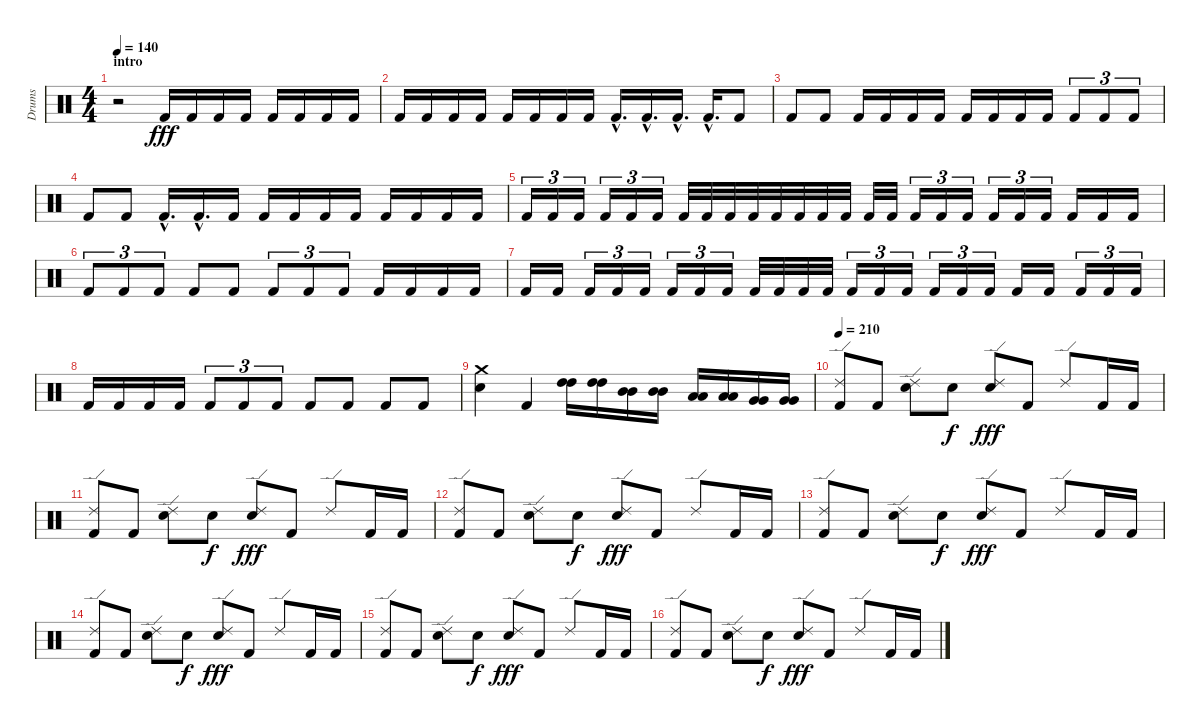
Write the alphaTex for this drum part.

\track ("Drums" "Drums") {instrument percussion}
\staff {score}
\articulation defaults
\ts (4 4)
\section ("" "intro")
\tempo 140
\clef neutral
\ks c
r.2{dy fff} "Kick (hit) 2".16 "Kick (hit) 2".16 "Kick (hit) 2".16 "Kick (hit) 2".16 "Kick (hit) 2".16 "Kick (hit) 2".16 "Kick (hit) 2".16 "Kick (hit) 2".16 |
"Kick (hit) 2".16 "Kick (hit) 2".16 "Kick (hit) 2".16 "Kick (hit) 2".16 "Kick (hit) 2".16 "Kick (hit) 2".16 "Kick (hit) 2".16 "Kick (hit) 2".16 "Kick (hit) 2"{hac}.16{d} "Kick (hit) 2"{hac}.16{d} "Kick (hit) 2"{hac}.16{d} "Kick (hit) 2"{hac}.16{d} "Kick (hit) 2".8 |
"Kick (hit) 2".8 "Kick (hit) 2".8 "Kick (hit) 2".16 "Kick (hit) 2".16 "Kick (hit) 2".16 "Kick (hit) 2".16 "Kick (hit) 2".16 "Kick (hit) 2".16 "Kick (hit) 2".16 "Kick (hit) 2".16 "Kick (hit) 2".8{tu (3 2)} "Kick (hit) 2".8{tu (3 2)} "Kick (hit) 2".8{tu (3 2)} |
"Kick (hit) 2".8 "Kick (hit) 2".8 "Kick (hit) 2"{hac}.16{d} "Kick (hit) 2"{hac}.16{d} "Kick (hit) 2".16 "Kick (hit) 2".16 "Kick (hit) 2".16 "Kick (hit) 2".16 "Kick (hit) 2".16 "Kick (hit) 2".16 "Kick (hit) 2".16 "Kick (hit) 2".16 "Kick (hit) 2".16 |
"Kick (hit) 2".16{tu (3 2)} "Kick (hit) 2".16{tu (3 2)} "Kick (hit) 2".16{tu (3 2)} "Kick (hit) 2".16{tu (3 2)} "Kick (hit) 2".16{tu (3 2)} "Kick (hit) 2".16{tu (3 2)} "Kick (hit) 2".32 "Kick (hit) 2".32 "Kick (hit) 2".32 "Kick (hit) 2".32 "Kick (hit) 2".32 "Kick (hit) 2".32 "Kick (hit) 2".32 "Kick (hit) 2".32 "Kick (hit) 2".32 "Kick (hit) 2".32 "Kick (hit) 2".16{tu (3 2)} "Kick (hit) 2".16{tu (3 2)} "Kick (hit) 2".16{tu (3 2)} "Kick (hit) 2".16{tu (3 2)} "Kick (hit) 2".16{tu (3 2)} "Kick (hit) 2".16{tu (3 2)} "Kick (hit) 2".16 "Kick (hit) 2".16 "Kick (hit) 2".16 |
"Kick (hit) 2".8{tu (3 2)} "Kick (hit) 2".8{tu (3 2)} "Kick (hit) 2".8{tu (3 2)} "Kick (hit) 2".8 "Kick (hit) 2".8 "Kick (hit) 2".8{tu (3 2)} "Kick (hit) 2".8{tu (3 2)} "Kick (hit) 2".8{tu (3 2)} "Kick (hit) 2".16 "Kick (hit) 2".16 "Kick (hit) 2".16 "Kick (hit) 2".16 |
"Kick (hit) 2".16 "Kick (hit) 2".16 "Kick (hit) 2".16{tu (3 2)} "Kick (hit) 2".16{tu (3 2)} "Kick (hit) 2".16{tu (3 2)} "Kick (hit) 2".16{tu (3 2)} "Kick (hit) 2".16{tu (3 2)} "Kick (hit) 2".16{tu (3 2)} "Kick (hit) 2".32 "Kick (hit) 2".32 "Kick (hit) 2".32 "Kick (hit) 2".32 "Kick (hit) 2".16{tu (3 2)} "Kick (hit) 2".16{tu (3 2)} "Kick (hit) 2".16{tu (3 2)} "Kick (hit) 2".16{tu (3 2)} "Kick (hit) 2".16{tu (3 2)} "Kick (hit) 2".16{tu (3 2)} "Kick (hit) 2".16 "Kick (hit) 2".16 "Kick (hit) 2".16{tu (3 2)} "Kick (hit) 2".16{tu (3 2)} "Kick (hit) 2".16{tu (3 2)} |
"Kick (hit) 2".16 "Kick (hit) 2".16 "Kick (hit) 2".16 "Kick (hit) 2".16 "Kick (hit) 2".8{tu (3 2)} "Kick (hit) 2".8{tu (3 2)} "Kick (hit) 2".8{tu (3 2)} "Kick (hit) 2".8 "Kick (hit) 2".8 "Kick (hit) 2".8 "Kick (hit) 2".8 |
("Electric Snare (hit)" "Crash medium (hit)").4 "Kick (hit) 2".4 ("High Tom (hit)" "High Tom (hit)").16 ("High Tom (hit)" "High Tom (hit)").16 ("Mid Tom (hit)" "Mid Tom (hit)").16 ("Mid Tom (hit)" "Mid Tom (hit)").16 ("Low Tom (hit)" "Low Tom (hit)").16 ("Low Tom (hit)" "Low Tom (hit)").16 ("Very Low Tom (hit)" "Very Low Tom (hit)").16 ("Very Low Tom (hit)" "Very Low Tom (hit)").16 |
\tempo 210
("Ride (edge) 2" "Kick (hit) 2").8 "Kick (hit) 2".8 ("Ride (edge) 2" "Electric Snare (hit)").8 "Electric Snare (hit)".8{dy f} ("Ride (edge) 2" "Electric Snare (hit)").8{dy fff} "Kick (hit) 2".8 "Ride (edge) 2".8 "Kick (hit) 2".16 "Kick (hit) 2".16 |
("Ride (edge) 2" "Kick (hit) 2").8 "Kick (hit) 2".8 ("Ride (edge) 2" "Electric Snare (hit)").8 "Electric Snare (hit)".8{dy f} ("Ride (edge) 2" "Electric Snare (hit)").8{dy fff} "Kick (hit) 2".8 "Ride (edge) 2".8 "Kick (hit) 2".16 "Kick (hit) 2".16 |
("Ride (edge) 2" "Kick (hit) 2").8 "Kick (hit) 2".8 ("Ride (edge) 2" "Electric Snare (hit)").8 "Electric Snare (hit)".8{dy f} ("Ride (edge) 2" "Electric Snare (hit)").8{dy fff} "Kick (hit) 2".8 "Ride (edge) 2".8 "Kick (hit) 2".16 "Kick (hit) 2".16 |
("Ride (edge) 2" "Kick (hit) 2").8 "Kick (hit) 2".8 ("Ride (edge) 2" "Electric Snare (hit)").8 "Electric Snare (hit)".8{dy f} ("Ride (edge) 2" "Electric Snare (hit)").8{dy fff} "Kick (hit) 2".8 "Ride (edge) 2".8 "Kick (hit) 2".16 "Kick (hit) 2".16 |
("Ride (edge) 2" "Kick (hit) 2").8 "Kick (hit) 2".8 ("Ride (edge) 2" "Electric Snare (hit)").8 "Electric Snare (hit)".8{dy f} ("Ride (edge) 2" "Electric Snare (hit)").8{dy fff} "Kick (hit) 2".8 "Ride (edge) 2".8 "Kick (hit) 2".16 "Kick (hit) 2".16 |
("Ride (edge) 2" "Kick (hit) 2").8 "Kick (hit) 2".8 ("Ride (edge) 2" "Electric Snare (hit)").8 "Electric Snare (hit)".8{dy f} ("Ride (edge) 2" "Electric Snare (hit)").8{dy fff} "Kick (hit) 2".8 "Ride (edge) 2".8 "Kick (hit) 2".16 "Kick (hit) 2".16 |
("Ride (edge) 2" "Kick (hit) 2").8 "Kick (hit) 2".8 ("Ride (edge) 2" "Electric Snare (hit)").8 "Electric Snare (hit)".8{dy f} ("Ride (edge) 2" "Electric Snare (hit)").8{dy fff} "Kick (hit) 2".8 "Ride (edge) 2".8 "Kick (hit) 2".16 "Kick (hit) 2".16
